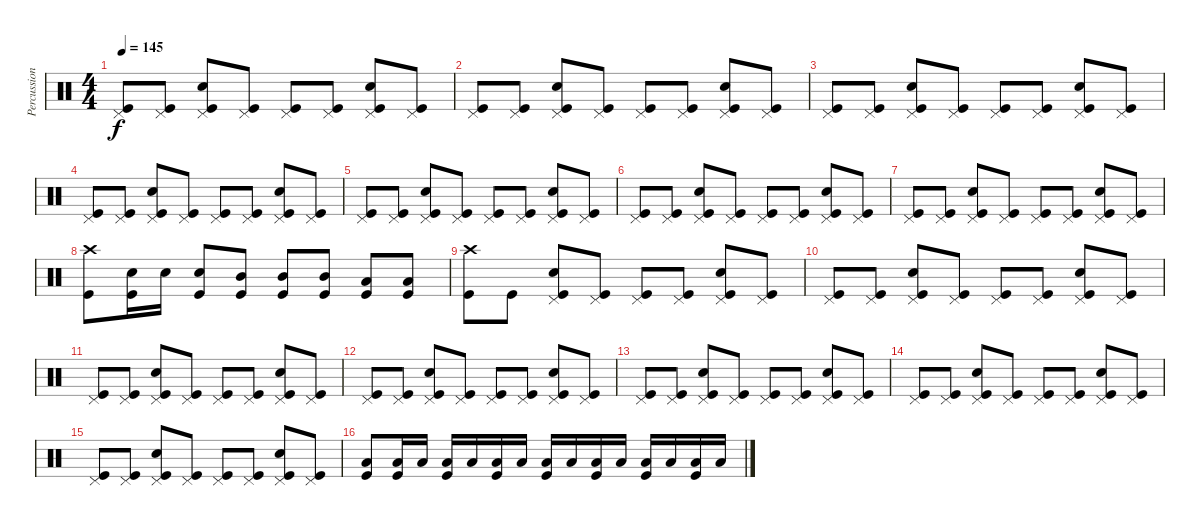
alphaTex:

\track ("Percussion" "Percussion") {instrument percussion}
\staff {score}
\articulation defaults
\ts (4 4)
\tempo 145
\clef neutral
\ks c
("Pedal Hi-Hat (hit)" "Kick (hit)").8{dy f} ("Pedal Hi-Hat (hit)" "Kick (hit)").8 ("Pedal Hi-Hat (hit)" "Snare (hit) 2" "Kick (hit)").8 ("Pedal Hi-Hat (hit)" "Kick (hit)").8 ("Pedal Hi-Hat (hit)" "Kick (hit)").8 ("Pedal Hi-Hat (hit)" "Kick (hit)").8 ("Pedal Hi-Hat (hit)" "Snare (hit) 2" "Kick (hit)").8 ("Pedal Hi-Hat (hit)" "Kick (hit)").8 |
("Pedal Hi-Hat (hit)" "Kick (hit)").8 ("Pedal Hi-Hat (hit)" "Kick (hit)").8 ("Pedal Hi-Hat (hit)" "Snare (hit) 2" "Kick (hit)").8 ("Pedal Hi-Hat (hit)" "Kick (hit)").8 ("Pedal Hi-Hat (hit)" "Kick (hit)").8 ("Pedal Hi-Hat (hit)" "Kick (hit)").8 ("Pedal Hi-Hat (hit)" "Snare (hit) 2" "Kick (hit)").8 ("Pedal Hi-Hat (hit)" "Kick (hit)").8 |
("Pedal Hi-Hat (hit)" "Kick (hit)").8 ("Pedal Hi-Hat (hit)" "Kick (hit)").8 ("Pedal Hi-Hat (hit)" "Snare (hit) 2" "Kick (hit)").8 ("Pedal Hi-Hat (hit)" "Kick (hit)").8 ("Pedal Hi-Hat (hit)" "Kick (hit)").8 ("Pedal Hi-Hat (hit)" "Kick (hit)").8 ("Pedal Hi-Hat (hit)" "Snare (hit) 2" "Kick (hit)").8 ("Pedal Hi-Hat (hit)" "Kick (hit)").8 |
("Pedal Hi-Hat (hit)" "Kick (hit)").8 ("Pedal Hi-Hat (hit)" "Kick (hit)").8 ("Pedal Hi-Hat (hit)" "Snare (hit) 2" "Kick (hit)").8 ("Pedal Hi-Hat (hit)" "Kick (hit)").8 ("Pedal Hi-Hat (hit)" "Kick (hit)").8 ("Pedal Hi-Hat (hit)" "Kick (hit)").8 ("Pedal Hi-Hat (hit)" "Snare (hit) 2" "Kick (hit)").8 ("Pedal Hi-Hat (hit)" "Kick (hit)").8 |
("Pedal Hi-Hat (hit)" "Kick (hit)").8 ("Pedal Hi-Hat (hit)" "Kick (hit)").8 ("Pedal Hi-Hat (hit)" "Snare (hit) 2" "Kick (hit)").8 ("Pedal Hi-Hat (hit)" "Kick (hit)").8 ("Pedal Hi-Hat (hit)" "Kick (hit)").8 ("Pedal Hi-Hat (hit)" "Kick (hit)").8 ("Pedal Hi-Hat (hit)" "Snare (hit) 2" "Kick (hit)").8 ("Pedal Hi-Hat (hit)" "Kick (hit)").8 |
("Pedal Hi-Hat (hit)" "Kick (hit)").8 ("Pedal Hi-Hat (hit)" "Kick (hit)").8 ("Pedal Hi-Hat (hit)" "Snare (hit) 2" "Kick (hit)").8 ("Pedal Hi-Hat (hit)" "Kick (hit)").8 ("Pedal Hi-Hat (hit)" "Kick (hit)").8 ("Pedal Hi-Hat (hit)" "Kick (hit)").8 ("Pedal Hi-Hat (hit)" "Snare (hit) 2" "Kick (hit)").8 ("Pedal Hi-Hat (hit)" "Kick (hit)").8 |
("Pedal Hi-Hat (hit)" "Kick (hit)").8 ("Pedal Hi-Hat (hit)" "Kick (hit)").8 ("Pedal Hi-Hat (hit)" "Snare (hit) 2" "Kick (hit)").8 ("Pedal Hi-Hat (hit)" "Kick (hit)").8 ("Pedal Hi-Hat (hit)" "Kick (hit)").8 ("Pedal Hi-Hat (hit)" "Kick (hit)").8 ("Pedal Hi-Hat (hit)" "Snare (hit) 2" "Kick (hit)").8 ("Pedal Hi-Hat (hit)" "Kick (hit)").8 |
("Crash high (hit)" "Kick (hit)").8 ("Snare (hit) 2" "Kick (hit)").16 "Snare (hit) 2".16 ("Snare (hit) 2" "Kick (hit)").8 ("Mid Tom (hit)" "Kick (hit)").8 ("Mid Tom (hit)" "Kick (hit)").8 ("Mid Tom (hit)" "Kick (hit)").8 ("Low Tom (hit)" "Kick (hit)").8 ("Low Tom (hit)" "Kick (hit)").8 |
("Crash high (hit)" "Kick (hit)").8 "Kick (hit)".8 ("Pedal Hi-Hat (hit)" "Snare (hit) 2" "Kick (hit)").8 ("Pedal Hi-Hat (hit)" "Kick (hit)").8 ("Pedal Hi-Hat (hit)" "Kick (hit)").8 ("Pedal Hi-Hat (hit)" "Kick (hit)").8 ("Pedal Hi-Hat (hit)" "Snare (hit) 2" "Kick (hit)").8 ("Pedal Hi-Hat (hit)" "Kick (hit)").8 |
("Pedal Hi-Hat (hit)" "Kick (hit)").8 ("Pedal Hi-Hat (hit)" "Kick (hit)").8 ("Pedal Hi-Hat (hit)" "Snare (hit) 2" "Kick (hit)").8 ("Pedal Hi-Hat (hit)" "Kick (hit)").8 ("Pedal Hi-Hat (hit)" "Kick (hit)").8 ("Pedal Hi-Hat (hit)" "Kick (hit)").8 ("Pedal Hi-Hat (hit)" "Snare (hit) 2" "Kick (hit)").8 ("Pedal Hi-Hat (hit)" "Kick (hit)").8 |
("Pedal Hi-Hat (hit)" "Kick (hit)").8 ("Pedal Hi-Hat (hit)" "Kick (hit)").8 ("Pedal Hi-Hat (hit)" "Snare (hit) 2" "Kick (hit)").8 ("Pedal Hi-Hat (hit)" "Kick (hit)").8 ("Pedal Hi-Hat (hit)" "Kick (hit)").8 ("Pedal Hi-Hat (hit)" "Kick (hit)").8 ("Pedal Hi-Hat (hit)" "Snare (hit) 2" "Kick (hit)").8 ("Pedal Hi-Hat (hit)" "Kick (hit)").8 |
("Pedal Hi-Hat (hit)" "Kick (hit)").8 ("Pedal Hi-Hat (hit)" "Kick (hit)").8 ("Pedal Hi-Hat (hit)" "Snare (hit) 2" "Kick (hit)").8 ("Pedal Hi-Hat (hit)" "Kick (hit)").8 ("Pedal Hi-Hat (hit)" "Kick (hit)").8 ("Pedal Hi-Hat (hit)" "Kick (hit)").8 ("Pedal Hi-Hat (hit)" "Snare (hit) 2" "Kick (hit)").8 ("Pedal Hi-Hat (hit)" "Kick (hit)").8 |
("Pedal Hi-Hat (hit)" "Kick (hit)").8 ("Pedal Hi-Hat (hit)" "Kick (hit)").8 ("Pedal Hi-Hat (hit)" "Snare (hit) 2" "Kick (hit)").8 ("Pedal Hi-Hat (hit)" "Kick (hit)").8 ("Pedal Hi-Hat (hit)" "Kick (hit)").8 ("Pedal Hi-Hat (hit)" "Kick (hit)").8 ("Pedal Hi-Hat (hit)" "Snare (hit) 2" "Kick (hit)").8 ("Pedal Hi-Hat (hit)" "Kick (hit)").8 |
("Pedal Hi-Hat (hit)" "Kick (hit)").8 ("Pedal Hi-Hat (hit)" "Kick (hit)").8 ("Pedal Hi-Hat (hit)" "Snare (hit) 2" "Kick (hit)").8 ("Pedal Hi-Hat (hit)" "Kick (hit)").8 ("Pedal Hi-Hat (hit)" "Kick (hit)").8 ("Pedal Hi-Hat (hit)" "Kick (hit)").8 ("Pedal Hi-Hat (hit)" "Snare (hit) 2" "Kick (hit)").8 ("Pedal Hi-Hat (hit)" "Kick (hit)").8 |
("Pedal Hi-Hat (hit)" "Kick (hit)").8 ("Pedal Hi-Hat (hit)" "Kick (hit)").8 ("Pedal Hi-Hat (hit)" "Snare (hit) 2" "Kick (hit)").8 ("Pedal Hi-Hat (hit)" "Kick (hit)").8 ("Pedal Hi-Hat (hit)" "Kick (hit)").8 ("Pedal Hi-Hat (hit)" "Kick (hit)").8 ("Pedal Hi-Hat (hit)" "Snare (hit) 2" "Kick (hit)").8 ("Pedal Hi-Hat (hit)" "Kick (hit)").8 |
("Low Floor Tom (hit)" "Kick (hit)").8 ("Low Floor Tom (hit)" "Kick (hit)").16 "Low Floor Tom (hit)".16 ("Low Tom (hit)" "Kick (hit)").16 "Low Tom (hit)".16 ("Low Floor Tom (hit)" "Kick (hit)").16 "Low Floor Tom (hit)".16 ("Low Floor Tom (hit)" "Kick (hit)").16 "Low Floor Tom (hit)".16 ("Low Floor Tom (hit)" "Kick (hit)").16 "Low Floor Tom (hit)".16 ("Low Floor Tom (hit)" "Kick (hit)").16 "Low Floor Tom (hit)".16 ("Low Floor Tom (hit)" "Kick (hit)").16 "Low Floor Tom (hit)".16
